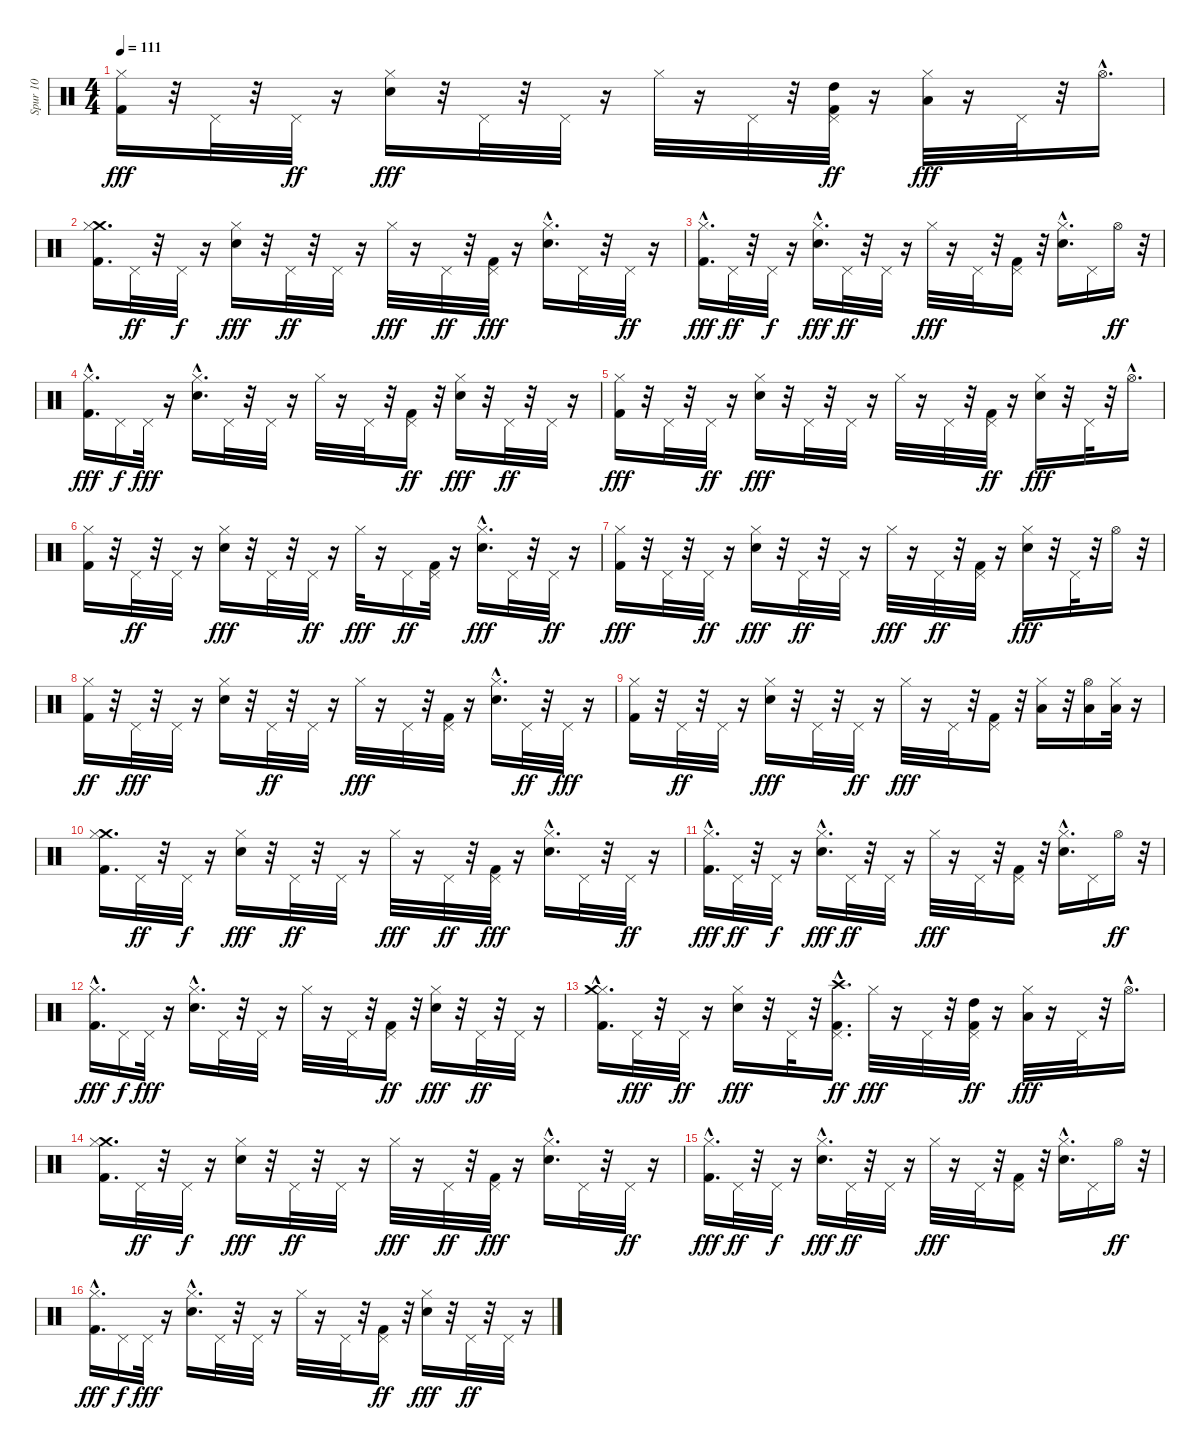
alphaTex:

\track ("Spur 10" "Spur 10") {instrument percussion}
\staff {score}
\articulation defaults
\ts (4 4)
\tempo 111
\clef neutral
\ks c
("Kick (hit) 2" "Hi-Hat (closed)").16{dy fff} r.32 "Pedal Hi-Hat (hit)".32 r.32 "Pedal Hi-Hat (hit)".32{dy ff} r.16 ("Snare (hit) 2" "Hi-Hat (closed)").16{dy fff} r.32 "Pedal Hi-Hat (hit)".32 r.32 "Pedal Hi-Hat (hit)".32 r.16 "Hi-Hat (closed)".32 r.16 "Pedal Hi-Hat (hit)".32 r.32 ("Kick (hit) 2" "Pedal Hi-Hat (hit)" "High Tom (hit)").32{dy ff} r.16 ("Low Tom (hit)" "Hi-Hat (closed)").32{dy fff} r.16 "Pedal Hi-Hat (hit)".32 r.32 "Hi-Hat (open)"{hac}.16{d} |
("Kick (hit) 2" "Crash medium (hit)" "Hi-Hat (closed)").16{d} "Pedal Hi-Hat (hit)".32{dy ff} r.32 "Pedal Hi-Hat (hit)".32{dy f} r.16 ("Snare (hit) 2" "Hi-Hat (closed)").16{dy fff} r.32 "Pedal Hi-Hat (hit)".32{dy ff} r.32 "Pedal Hi-Hat (hit)".32 r.16 "Hi-Hat (closed)".32{dy fff} r.16 "Pedal Hi-Hat (hit)".32{dy ff} r.32 ("Kick (hit) 2" "Pedal Hi-Hat (hit)").32{dy fff} r.16 ("Snare (hit) 2"{hac} "Hi-Hat (closed)").16{d} "Pedal Hi-Hat (hit)".32 r.32 "Pedal Hi-Hat (hit)".32{dy ff} r.16 |
("Kick (hit) 2"{hac} "Hi-Hat (closed)").16{d dy fff} "Pedal Hi-Hat (hit)".32{dy ff} r.32 "Pedal Hi-Hat (hit)".32{dy f} r.16 ("Snare (hit) 2"{hac} "Hi-Hat (closed)").16{d dy fff} "Pedal Hi-Hat (hit)".32{dy ff} r.32 "Pedal Hi-Hat (hit)".32 r.16 "Hi-Hat (closed)".32{dy fff} r.16 "Pedal Hi-Hat (hit)".32 r.32 ("Kick (hit) 2" "Pedal Hi-Hat (hit)").16 r.32 ("Snare (hit) 2"{hac} "Hi-Hat (closed)").16{d} "Pedal Hi-Hat (hit)".16 "Hi-Hat (open)".16{dy ff} r.32 |
("Kick (hit) 2"{hac} "Hi-Hat (closed)").16{d dy fff} "Pedal Hi-Hat (hit)".16{dy f} "Pedal Hi-Hat (hit)".32{dy fff} r.16 ("Snare (hit) 2"{hac} "Hi-Hat (closed)").16{d} "Pedal Hi-Hat (hit)".32 r.32 "Pedal Hi-Hat (hit)".32 r.16 "Hi-Hat (closed)".32 r.16 "Pedal Hi-Hat (hit)".32 r.32 ("Kick (hit) 2" "Pedal Hi-Hat (hit)").16{dy ff} r.32 ("Snare (hit) 2" "Hi-Hat (closed)").16{dy fff} r.32 "Pedal Hi-Hat (hit)".32{dy ff} r.32 "Pedal Hi-Hat (hit)".32 r.16 |
("Kick (hit) 2" "Hi-Hat (closed)").16{dy fff} r.32 "Pedal Hi-Hat (hit)".32 r.32 "Pedal Hi-Hat (hit)".32{dy ff} r.16 ("Snare (hit) 2" "Hi-Hat (closed)").16{dy fff} r.32 "Pedal Hi-Hat (hit)".32 r.32 "Pedal Hi-Hat (hit)".32 r.16 "Hi-Hat (closed)".32 r.16 "Pedal Hi-Hat (hit)".32 r.32 ("Kick (hit) 2" "Pedal Hi-Hat (hit)").32{dy ff} r.16 ("Snare (hit) 2" "Hi-Hat (closed)").16{dy fff} r.32 "Pedal Hi-Hat (hit)".32 r.32 "Hi-Hat (open)"{hac}.16{d} |
("Kick (hit) 2" "Hi-Hat (closed)").16 r.32 "Pedal Hi-Hat (hit)".32{dy ff} r.32 "Pedal Hi-Hat (hit)".32 r.16 ("Snare (hit) 2" "Hi-Hat (closed)").16{dy fff} r.32 "Pedal Hi-Hat (hit)".32 r.32 "Pedal Hi-Hat (hit)".32{dy ff} r.16 "Hi-Hat (closed)".32{dy fff} r.16 "Pedal Hi-Hat (hit)".16{dy ff} ("Kick (hit) 2" "Pedal Hi-Hat (hit)").32 r.16 ("Snare (hit) 2"{hac} "Hi-Hat (closed)").16{d dy fff} "Pedal Hi-Hat (hit)".32 r.32 "Pedal Hi-Hat (hit)".32{dy ff} r.16 |
("Kick (hit) 2" "Hi-Hat (closed)").16{dy fff} r.32 "Pedal Hi-Hat (hit)".32 r.32 "Pedal Hi-Hat (hit)".32{dy ff} r.16 ("Snare (hit) 2" "Hi-Hat (closed)").16{dy fff} r.32 "Pedal Hi-Hat (hit)".32{dy ff} r.32 "Pedal Hi-Hat (hit)".32 r.16 "Hi-Hat (closed)".32{dy fff} r.16 "Pedal Hi-Hat (hit)".32{dy ff} r.32 ("Kick (hit) 2" "Pedal Hi-Hat (hit)").32 r.16 ("Snare (hit) 2" "Hi-Hat (closed)").16{dy fff} r.32 "Pedal Hi-Hat (hit)".32 r.32 "Hi-Hat (open)".16 r.32 |
("Kick (hit) 2" "Hi-Hat (closed)").16{dy ff} r.32 "Pedal Hi-Hat (hit)".32{dy fff} r.32 "Pedal Hi-Hat (hit)".32 r.16 ("Snare (hit) 2" "Hi-Hat (closed)").16 r.32 "Pedal Hi-Hat (hit)".32{dy ff} r.32 "Pedal Hi-Hat (hit)".32 r.16 "Hi-Hat (closed)".32{dy fff} r.16 "Pedal Hi-Hat (hit)".32 r.32 ("Kick (hit) 2" "Pedal Hi-Hat (hit)").32 r.16 ("Snare (hit) 2"{hac} "Hi-Hat (closed)").16{d} "Pedal Hi-Hat (hit)".32{dy ff} r.32 "Pedal Hi-Hat (hit)".32{dy fff} r.16 |
("Kick (hit) 2" "Hi-Hat (closed)").16 r.32 "Pedal Hi-Hat (hit)".32{dy ff} r.32 "Pedal Hi-Hat (hit)".32 r.16 ("Snare (hit) 2" "Hi-Hat (closed)").16{dy fff} r.32 "Pedal Hi-Hat (hit)".32 r.32 "Pedal Hi-Hat (hit)".32{dy ff} r.16 "Hi-Hat (closed)".32{dy fff} r.16 "Pedal Hi-Hat (hit)".32 r.32 ("Kick (hit) 2" "Pedal Hi-Hat (hit)").16 r.32 ("Low Tom (hit)" "Hi-Hat (closed)").16 r.32 ("Low Tom (hit)" "Hi-Hat (open)").16 ("Low Floor Tom (hit)" "Hi-Hat (closed)").32 r.16 |
("Kick (hit) 2" "Crash medium (hit)" "Hi-Hat (closed)").16{d} "Pedal Hi-Hat (hit)".32{dy ff} r.32 "Pedal Hi-Hat (hit)".32{dy f} r.16 ("Snare (hit) 2" "Hi-Hat (closed)").16{dy fff} r.32 "Pedal Hi-Hat (hit)".32{dy ff} r.32 "Pedal Hi-Hat (hit)".32 r.16 "Hi-Hat (closed)".32{dy fff} r.16 "Pedal Hi-Hat (hit)".32{dy ff} r.32 ("Kick (hit) 2" "Pedal Hi-Hat (hit)").32{dy fff} r.16 ("Snare (hit) 2"{hac} "Hi-Hat (closed)").16{d} "Pedal Hi-Hat (hit)".32 r.32 "Pedal Hi-Hat (hit)".32{dy ff} r.16 |
("Kick (hit) 2"{hac} "Hi-Hat (closed)").16{d dy fff} "Pedal Hi-Hat (hit)".32{dy ff} r.32 "Pedal Hi-Hat (hit)".32{dy f} r.16 ("Snare (hit) 2"{hac} "Hi-Hat (closed)").16{d dy fff} "Pedal Hi-Hat (hit)".32{dy ff} r.32 "Pedal Hi-Hat (hit)".32 r.16 "Hi-Hat (closed)".32{dy fff} r.16 "Pedal Hi-Hat (hit)".32 r.32 ("Kick (hit) 2" "Pedal Hi-Hat (hit)").16 r.32 ("Snare (hit) 2"{hac} "Hi-Hat (closed)").16{d} "Pedal Hi-Hat (hit)".16 "Hi-Hat (open)".16{dy ff} r.32 |
("Kick (hit) 2"{hac} "Hi-Hat (closed)").16{d dy fff} "Pedal Hi-Hat (hit)".16{dy f} "Pedal Hi-Hat (hit)".32{dy fff} r.16 ("Snare (hit) 2"{hac} "Hi-Hat (closed)").16{d} "Pedal Hi-Hat (hit)".32 r.32 "Pedal Hi-Hat (hit)".32 r.16 "Hi-Hat (closed)".32 r.16 "Pedal Hi-Hat (hit)".32 r.32 ("Kick (hit) 2" "Pedal Hi-Hat (hit)").16{dy ff} r.32 ("Snare (hit) 2" "Hi-Hat (closed)").16{dy fff} r.32 "Pedal Hi-Hat (hit)".32{dy ff} r.32 "Pedal Hi-Hat (hit)".32 r.16 |
("Kick (hit) 2" "Hi-Hat (closed)" "Crash medium (hit)"{hac}).16{d} "Pedal Hi-Hat (hit)".32{dy fff} r.32 "Pedal Hi-Hat (hit)".32{dy ff} r.16 ("Snare (hit) 2" "Hi-Hat (closed)").16{dy fff} r.32 "Pedal Hi-Hat (hit)".32 r.32 ("Pedal Hi-Hat (hit)" "Kick (hit) 2" "Crash high (hit)"{hac}).16{d dy ff} "Hi-Hat (closed)".32{dy fff} r.16 "Pedal Hi-Hat (hit)".32 r.32 ("Kick (hit) 2" "Pedal Hi-Hat (hit)" "High Tom (hit)").32{dy ff} r.16 ("Low Tom (hit)" "Hi-Hat (closed)").32{dy fff} r.16 "Pedal Hi-Hat (hit)".32 r.32 "Hi-Hat (open)"{hac}.16{d} |
("Kick (hit) 2" "Crash medium (hit)" "Hi-Hat (closed)").16{d} "Pedal Hi-Hat (hit)".32{dy ff} r.32 "Pedal Hi-Hat (hit)".32{dy f} r.16 ("Snare (hit) 2" "Hi-Hat (closed)").16{dy fff} r.32 "Pedal Hi-Hat (hit)".32{dy ff} r.32 "Pedal Hi-Hat (hit)".32 r.16 "Hi-Hat (closed)".32{dy fff} r.16 "Pedal Hi-Hat (hit)".32{dy ff} r.32 ("Kick (hit) 2" "Pedal Hi-Hat (hit)").32{dy fff} r.16 ("Snare (hit) 2"{hac} "Hi-Hat (closed)").16{d} "Pedal Hi-Hat (hit)".32 r.32 "Pedal Hi-Hat (hit)".32{dy ff} r.16 |
("Kick (hit) 2"{hac} "Hi-Hat (closed)").16{d dy fff} "Pedal Hi-Hat (hit)".32{dy ff} r.32 "Pedal Hi-Hat (hit)".32{dy f} r.16 ("Snare (hit) 2"{hac} "Hi-Hat (closed)").16{d dy fff} "Pedal Hi-Hat (hit)".32{dy ff} r.32 "Pedal Hi-Hat (hit)".32 r.16 "Hi-Hat (closed)".32{dy fff} r.16 "Pedal Hi-Hat (hit)".32 r.32 ("Kick (hit) 2" "Pedal Hi-Hat (hit)").16 r.32 ("Snare (hit) 2"{hac} "Hi-Hat (closed)").16{d} "Pedal Hi-Hat (hit)".16 "Hi-Hat (open)".16{dy ff} r.32 |
("Kick (hit) 2"{hac} "Hi-Hat (closed)").16{d dy fff} "Pedal Hi-Hat (hit)".16{dy f} "Pedal Hi-Hat (hit)".32{dy fff} r.16 ("Snare (hit) 2"{hac} "Hi-Hat (closed)").16{d} "Pedal Hi-Hat (hit)".32 r.32 "Pedal Hi-Hat (hit)".32 r.16 "Hi-Hat (closed)".32 r.16 "Pedal Hi-Hat (hit)".32 r.32 ("Kick (hit) 2" "Pedal Hi-Hat (hit)").16{dy ff} r.32 ("Snare (hit) 2" "Hi-Hat (closed)").16{dy fff} r.32 "Pedal Hi-Hat (hit)".32{dy ff} r.32 "Pedal Hi-Hat (hit)".32 r.16
